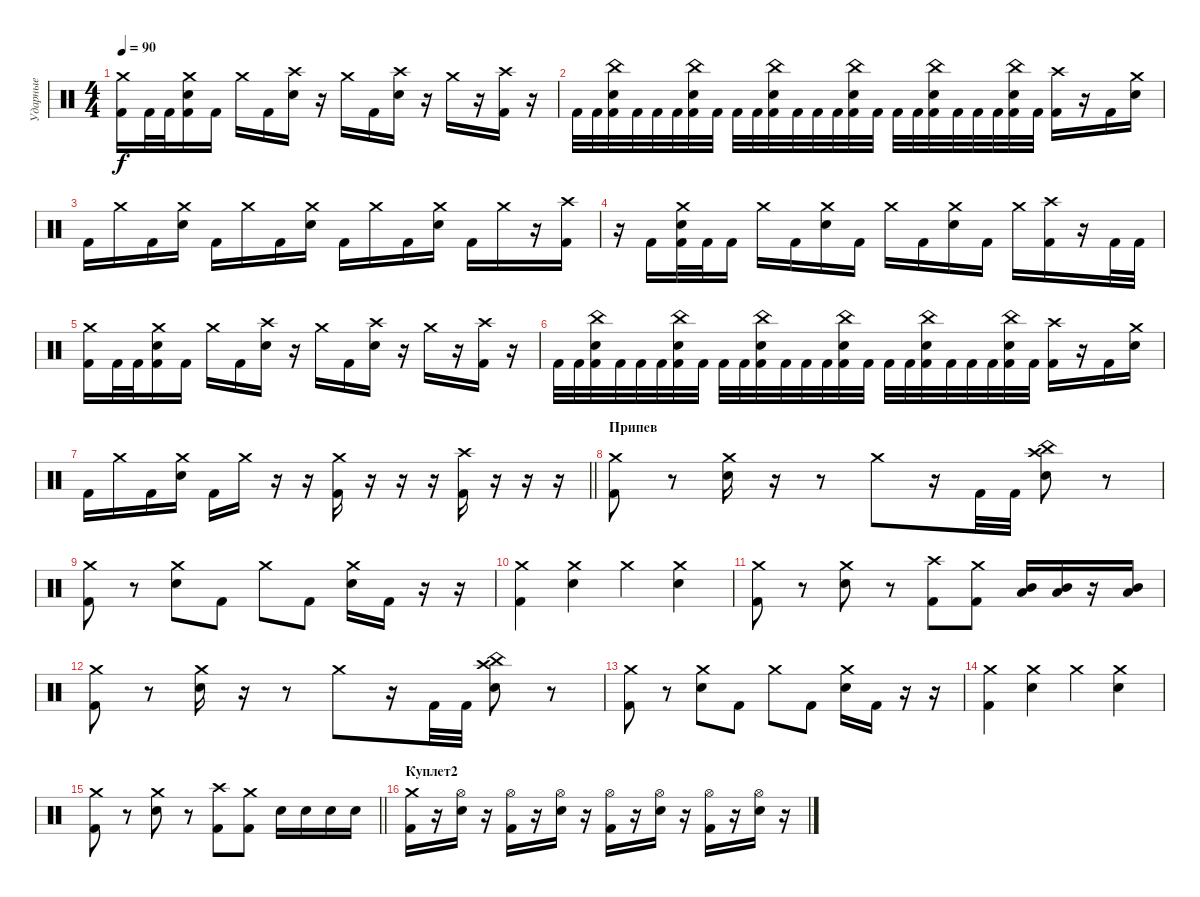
\track ("Ударные" "Ударные") {instrument percussion}
\staff {score}
\articulation defaults
\ts (4 4)
\tempo 90
\clef neutral
\ks c
("Crash medium (hit)" "Kick (hit) 2").16{dy f} "Kick (hit) 2".32 "Kick (hit) 2".32 ("Crash medium (hit)" "Electric Snare (hit)" "Kick (hit) 2").16 "Kick (hit) 2".16 "Crash medium (hit)".16 "Kick (hit) 2".16 ("Crash high (hit)" "Electric Snare (hit)").16 r.16 "Crash medium (hit)".16 "Kick (hit) 2".16 ("Crash high (hit)" "Electric Snare (hit)").16 r.16 "Crash medium (hit)".16 r.16 ("Crash high (hit)" "Kick (hit) 2").16 r.16 |
"Kick (hit) 2".32 "Kick (hit) 2".32 ("China (hit)" "Electric Snare (hit)" "Kick (hit) 2").32 "Kick (hit) 2".32 "Kick (hit) 2".32 "Kick (hit) 2".32 ("China (hit)" "Electric Snare (hit)" "Kick (hit) 2").32 "Kick (hit) 2".32 "Kick (hit) 2".32 "Kick (hit) 2".32 ("China (hit)" "Electric Snare (hit)" "Kick (hit) 2").32 "Kick (hit) 2".32 "Kick (hit) 2".32 "Kick (hit) 2".32 ("China (hit)" "Electric Snare (hit)" "Kick (hit) 2").32 "Kick (hit) 2".32 "Kick (hit) 2".32 "Kick (hit) 2".32 ("China (hit)" "Electric Snare (hit)" "Kick (hit) 2").32 "Kick (hit) 2".32 "Kick (hit) 2".32 "Kick (hit) 2".32 ("China (hit)" "Electric Snare (hit)" "Kick (hit) 2").32 "Kick (hit) 2".32 ("Crash high (hit)" "Kick (hit) 2").16 r.16 "Kick (hit) 2".16 ("Crash medium (hit)" "Electric Snare (hit)").16 |
"Kick (hit) 2".16 "Crash medium (hit)".16 "Kick (hit) 2".16 ("Crash medium (hit)" "Electric Snare (hit)").16 "Kick (hit) 2".16 "Crash medium (hit)".16 "Kick (hit) 2".16 ("Crash medium (hit)" "Electric Snare (hit)").16 "Kick (hit) 2".16 "Crash medium (hit)".16 "Kick (hit) 2".16 ("Crash medium (hit)" "Electric Snare (hit)").16 "Kick (hit) 2".16 "Crash medium (hit)".16 r.16 ("Crash high (hit)" "Kick (hit) 2").16 |
r.16 "Kick (hit) 2".16 ("Crash medium (hit)" "Electric Snare (hit)" "Kick (hit) 2").32 "Kick (hit) 2".32 "Kick (hit) 2".16 "Crash medium (hit)".16 "Kick (hit) 2".16 ("Crash medium (hit)" "Electric Snare (hit)").16 "Kick (hit) 2".16 "Crash medium (hit)".16 "Kick (hit) 2".16 ("Crash medium (hit)" "Electric Snare (hit)").16 "Kick (hit) 2".16 "Crash medium (hit)".16 ("Crash high (hit)" "Kick (hit) 2").16 r.16 "Kick (hit) 2".32 "Kick (hit) 2".32 |
("Crash medium (hit)" "Kick (hit) 2").16 "Kick (hit) 2".32 "Kick (hit) 2".32 ("Crash medium (hit)" "Electric Snare (hit)" "Kick (hit) 2").16 "Kick (hit) 2".16 "Crash medium (hit)".16 "Kick (hit) 2".16 ("Crash high (hit)" "Electric Snare (hit)").16 r.16 "Crash medium (hit)".16 "Kick (hit) 2".16 ("Crash high (hit)" "Electric Snare (hit)").16 r.16 "Crash medium (hit)".16 r.16 ("Crash high (hit)" "Kick (hit) 2").16 r.16 |
"Kick (hit) 2".32 "Kick (hit) 2".32 ("China (hit)" "Electric Snare (hit)" "Kick (hit) 2").32 "Kick (hit) 2".32 "Kick (hit) 2".32 "Kick (hit) 2".32 ("China (hit)" "Electric Snare (hit)" "Kick (hit) 2").32 "Kick (hit) 2".32 "Kick (hit) 2".32 "Kick (hit) 2".32 ("China (hit)" "Electric Snare (hit)" "Kick (hit) 2").32 "Kick (hit) 2".32 "Kick (hit) 2".32 "Kick (hit) 2".32 ("China (hit)" "Electric Snare (hit)" "Kick (hit) 2").32 "Kick (hit) 2".32 "Kick (hit) 2".32 "Kick (hit) 2".32 ("China (hit)" "Electric Snare (hit)" "Kick (hit) 2").32 "Kick (hit) 2".32 "Kick (hit) 2".32 "Kick (hit) 2".32 ("China (hit)" "Electric Snare (hit)" "Kick (hit) 2").32 "Kick (hit) 2".32 ("Crash high (hit)" "Kick (hit) 2").16 r.16 "Kick (hit) 2".16 ("Crash medium (hit)" "Electric Snare (hit)").16 |
\barLineRight lightlight "Kick (hit) 2".16 "Crash medium (hit)".16 "Kick (hit) 2".16
("Crash medium (hit)" "Electric Snare (hit)").16 "Kick (hit) 2".16 "Crash medium (hit)".16 r.16 r.16 ("Crash medium (hit)" "Kick (hit) 2").16 r.16 r.16 r.16 ("Crash high (hit)" "Kick (hit) 2").16 r.16 r.16 r.16 |
\section ("" "Припев")
("Crash medium (hit)" "Kick (hit) 2").8 r.8 ("Crash medium (hit)" "Electric Snare (hit)").16 r.16 r.8 "Crash medium (hit)".8 r.16 "Kick (hit) 2".32 "Kick (hit) 2".32 ("China (hit)" "Crash high (hit)" "Electric Snare (hit)").8 r.8 |
("Crash medium (hit)" "Kick (hit) 2").8 r.8 ("Crash medium (hit)" "Electric Snare (hit)").8 "Kick (hit) 2".8 "Crash medium (hit)".8 "Kick (hit) 2".8 ("Crash medium (hit)" "Electric Snare (hit)").16 "Kick (hit) 2".16 r.16 r.16 |
("Crash medium (hit)" "Kick (hit) 2").4 ("Crash medium (hit)" "Electric Snare (hit)").4 "Crash medium (hit)".4 ("Crash medium (hit)" "Electric Snare (hit)").4 |
("Crash medium (hit)" "Kick (hit) 2").8 r.8 ("Crash medium (hit)" "Electric Snare (hit)").8 r.8 ("Crash high (hit)" "Kick (hit) 2").8 ("Crash medium (hit)" "Kick (hit) 2").8 ("Mid Tom (hit)" "Low Floor Tom (hit)").16 ("Mid Tom (hit)" "Low Floor Tom (hit)").16 r.16 ("Mid Tom (hit)" "Low Floor Tom (hit)").16 |
("Crash medium (hit)" "Kick (hit) 2").8 r.8 ("Crash medium (hit)" "Electric Snare (hit)").16 r.16 r.8 "Crash medium (hit)".8 r.16 "Kick (hit) 2".32 "Kick (hit) 2".32 ("China (hit)" "Crash high (hit)" "Electric Snare (hit)").8 r.8 |
("Crash medium (hit)" "Kick (hit) 2").8 r.8 ("Crash medium (hit)" "Electric Snare (hit)").8 "Kick (hit) 2".8 "Crash medium (hit)".8 "Kick (hit) 2".8 ("Crash medium (hit)" "Electric Snare (hit)").16 "Kick (hit) 2".16 r.16 r.16 |
("Crash medium (hit)" "Kick (hit) 2").4 ("Crash medium (hit)" "Electric Snare (hit)").4 "Crash medium (hit)".4 ("Crash medium (hit)" "Electric Snare (hit)").4 |
\barLineRight lightlight
("Crash medium (hit)" "Kick (hit) 2").8 r.8 ("Crash medium (hit)" "Electric Snare (hit)").8 r.8 ("Crash high (hit)" "Kick (hit) 2").8 ("Crash medium (hit)" "Kick (hit) 2").8 "Electric Snare (hit)".16 "Electric Snare (hit)".16 "Electric Snare (hit)".16 "Electric Snare (hit)".16 |
\section ("" "Куплет2")
("Crash medium (hit)" "Kick (hit) 2").16 r.16 ("Hi-Hat (open)" "Electric Snare (hit)").16 r.16 ("Hi-Hat (open)" "Kick (hit) 2").16 r.16 ("Hi-Hat (open)" "Electric Snare (hit)").16 r.16 ("Hi-Hat (open)" "Kick (hit) 2").16 r.16 ("Hi-Hat (open)" "Electric Snare (hit)").16 r.16 ("Hi-Hat (open)" "Kick (hit) 2").16 r.16 ("Hi-Hat (open)" "Electric Snare (hit)").16 r.16
